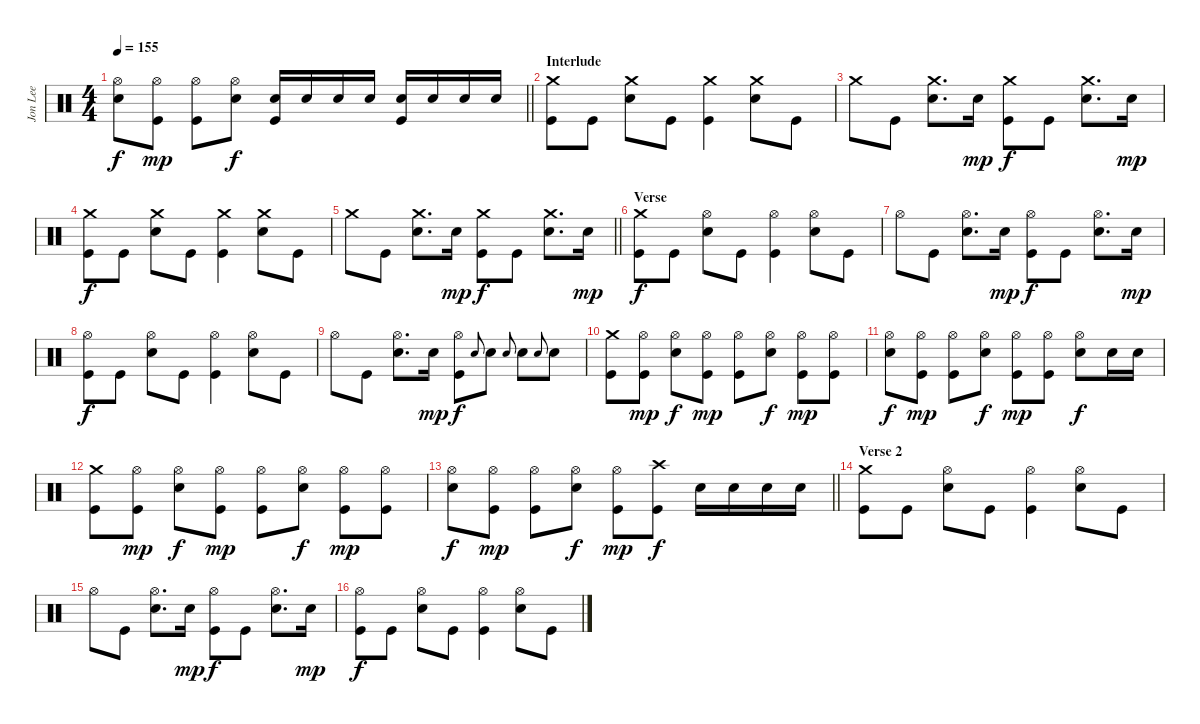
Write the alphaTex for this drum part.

\track ("Jon Lee" "Jon Lee") {instrument percussion}
\staff {score}
\articulation defaults
\ts (4 4)
\tempo 155
\clef neutral
\barLineRight lightlight
\ks c
("Hi-Hat (open)" "Electric Snare (hit)").8{dy f} ("Hi-Hat (open)" "Kick (hit)").8{dy mp} ("Hi-Hat (open)" "Kick (hit)").8 ("Hi-Hat (open)" "Electric Snare (hit)").8{dy f} ("Electric Snare (hit)" "Kick (hit)").16 "Electric Snare (hit)".16 "Electric Snare (hit)".16 "Electric Snare (hit)".16 ("Electric Snare (hit)" "Kick (hit)").16 "Electric Snare (hit)".16 "Electric Snare (hit)".16 "Electric Snare (hit)".16 |
\section ("" "Interlude")
("Crash medium (hit)" "Kick (hit)").8 "Kick (hit)".8 ("Crash medium (hit)" "Electric Snare (hit)").8 "Kick (hit)".8 ("Crash medium (hit)" "Kick (hit)").4 ("Crash medium (hit)" "Electric Snare (hit)").8 "Kick (hit)".8 |
"Crash medium (hit)".8 "Kick (hit)".8 ("Crash medium (hit)" "Electric Snare (hit)").8{d} "Electric Snare (hit)".16{dy mp} ("Crash medium (hit)" "Kick (hit)").8{dy f} "Kick (hit)".8 ("Crash medium (hit)" "Electric Snare (hit)").8{d} "Electric Snare (hit)".16{dy mp} |
("Crash medium (hit)" "Kick (hit)").8{dy f} "Kick (hit)".8 ("Crash medium (hit)" "Electric Snare (hit)").8 "Kick (hit)".8 ("Crash medium (hit)" "Kick (hit)").4 ("Crash medium (hit)" "Electric Snare (hit)").8 "Kick (hit)".8 |
\barLineRight lightlight "Crash medium (hit)".8 "Kick (hit)".8
("Crash medium (hit)" "Electric Snare (hit)").8{d} "Electric Snare (hit)".16{dy mp} ("Crash medium (hit)" "Kick (hit)").8{dy f} "Kick (hit)".8 ("Crash medium (hit)" "Electric Snare (hit)").8{d} "Electric Snare (hit)".16{dy mp} |
\section ("" "Verse")
("Crash medium (hit)" "Kick (hit)").8{dy f} "Kick (hit)".8 ("Hi-Hat (open)" "Electric Snare (hit)").8 "Kick (hit)".8 ("Hi-Hat (open)" "Kick (hit)").4 ("Hi-Hat (open)" "Electric Snare (hit)").8 "Kick (hit)".8 |
"Hi-Hat (open)".8 "Kick (hit)".8 ("Hi-Hat (open)" "Electric Snare (hit)").8{d} "Electric Snare (hit)".16{dy mp} ("Hi-Hat (open)" "Kick (hit)").8{dy f} "Kick (hit)".8 ("Hi-Hat (open)" "Electric Snare (hit)").8{d} "Electric Snare (hit)".16{dy mp} |
("Hi-Hat (open)" "Kick (hit)").8{dy f} "Kick (hit)".8 ("Hi-Hat (open)" "Electric Snare (hit)").8 "Kick (hit)".8 ("Hi-Hat (open)" "Kick (hit)").4 ("Hi-Hat (open)" "Electric Snare (hit)").8 "Kick (hit)".8 |
"Hi-Hat (open)".8 "Kick (hit)".8 ("Hi-Hat (open)" "Electric Snare (hit)").8{d} "Electric Snare (hit)".16{dy mp} ("Hi-Hat (open)" "Kick (hit)").8{dy f} "Electric Snare (hit)".8{gr onbeat} "Electric Snare (hit)".8 "Electric Snare (hit)".8{gr onbeat} "Electric Snare (hit)".8 "Electric Snare (hit)".8{gr onbeat} "Electric Snare (hit)".8 |
("Crash medium (hit)" "Kick (hit)").8 ("Hi-Hat (open)" "Kick (hit)").8{dy mp} ("Hi-Hat (open)" "Electric Snare (hit)").8{dy f} ("Hi-Hat (open)" "Kick (hit)").8{dy mp} ("Hi-Hat (open)" "Kick (hit)").8 ("Hi-Hat (open)" "Electric Snare (hit)").8{dy f} ("Hi-Hat (open)" "Kick (hit)").8{dy mp} ("Hi-Hat (open)" "Kick (hit)").8 |
("Hi-Hat (open)" "Electric Snare (hit)").8{dy f} ("Hi-Hat (open)" "Kick (hit)").8{dy mp} ("Hi-Hat (open)" "Kick (hit)").8 ("Hi-Hat (open)" "Electric Snare (hit)").8{dy f} ("Hi-Hat (open)" "Kick (hit)").8{dy mp} ("Hi-Hat (open)" "Kick (hit)").8 ("Hi-Hat (open)" "Electric Snare (hit)").8{dy f} "Electric Snare (hit)".16 "Electric Snare (hit)".16 |
("Crash medium (hit)" "Kick (hit)").8 ("Hi-Hat (open)" "Kick (hit)").8{dy mp} ("Hi-Hat (open)" "Electric Snare (hit)").8{dy f} ("Hi-Hat (open)" "Kick (hit)").8{dy mp} ("Hi-Hat (open)" "Kick (hit)").8 ("Hi-Hat (open)" "Electric Snare (hit)").8{dy f} ("Hi-Hat (open)" "Kick (hit)").8{dy mp} ("Hi-Hat (open)" "Kick (hit)").8 |
\barLineRight lightlight
("Hi-Hat (open)" "Electric Snare (hit)").8{dy f} ("Hi-Hat (open)" "Kick (hit)").8{dy mp} ("Hi-Hat (open)" "Kick (hit)").8 ("Hi-Hat (open)" "Electric Snare (hit)").8{dy f} ("Hi-Hat (open)" "Kick (hit)").8{dy mp} ("Crash high (hit)" "Kick (hit)").8{dy f} "Electric Snare (hit)".16 "Electric Snare (hit)".16 "Electric Snare (hit)".16 "Electric Snare (hit)".16 |
\section ("" "Verse 2")
("Crash medium (hit)" "Kick (hit)").8 "Kick (hit)".8 ("Hi-Hat (open)" "Electric Snare (hit)").8 "Kick (hit)".8 ("Hi-Hat (open)" "Kick (hit)").4 ("Hi-Hat (open)" "Electric Snare (hit)").8 "Kick (hit)".8 |
"Hi-Hat (open)".8 "Kick (hit)".8 ("Hi-Hat (open)" "Electric Snare (hit)").8{d} "Electric Snare (hit)".16{dy mp} ("Hi-Hat (open)" "Kick (hit)").8{dy f} "Kick (hit)".8 ("Hi-Hat (open)" "Electric Snare (hit)").8{d} "Electric Snare (hit)".16{dy mp} |
("Hi-Hat (open)" "Kick (hit)").8{dy f} "Kick (hit)".8 ("Hi-Hat (open)" "Electric Snare (hit)").8 "Kick (hit)".8 ("Hi-Hat (open)" "Kick (hit)").4 ("Hi-Hat (open)" "Electric Snare (hit)").8 "Kick (hit)".8
